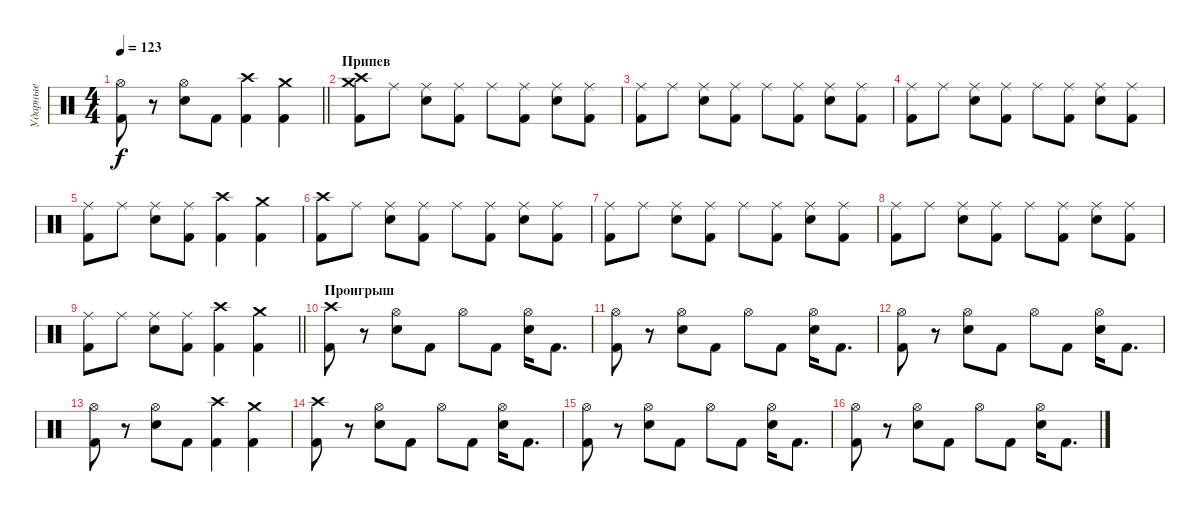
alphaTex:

\track ("Ударные" "Ударные") {instrument percussion}
\staff {score}
\articulation defaults
\ts (4 4)
\tempo 123
\clef neutral
\barLineRight lightlight
\ks c
("Hi-Hat (open)" "Kick (hit) 2").8{dy f} r.8 ("Hi-Hat (open)" "Electric Snare (hit)").8 "Kick (hit) 2".8 ("Kick (hit) 2" "Crash high (hit)").4 ("Kick (hit) 2" "Crash medium (hit)").4 |
\section ("" "Припев")
("Crash high (hit)" "Kick (hit) 2" "Crash medium (hit)").8 "Ride (middle)".8 ("Ride (middle)" "Electric Snare (hit)").8 ("Ride (middle)" "Kick (hit) 2").8 "Ride (middle)".8 ("Ride (middle)" "Kick (hit) 2").8 ("Ride (middle)" "Electric Snare (hit)").8 ("Ride (middle)" "Kick (hit) 2").8 |
("Ride (middle)" "Kick (hit) 2").8 "Ride (middle)".8 ("Ride (middle)" "Electric Snare (hit)").8 ("Ride (middle)" "Kick (hit) 2").8 "Ride (middle)".8 ("Ride (middle)" "Kick (hit) 2").8 ("Ride (middle)" "Electric Snare (hit)").8 ("Ride (middle)" "Kick (hit) 2").8 |
("Ride (middle)" "Kick (hit) 2").8 "Ride (middle)".8 ("Ride (middle)" "Electric Snare (hit)").8 ("Ride (middle)" "Kick (hit) 2").8 "Ride (middle)".8 ("Ride (middle)" "Kick (hit) 2").8 ("Ride (middle)" "Electric Snare (hit)").8 ("Ride (middle)" "Kick (hit) 2").8 |
("Ride (middle)" "Kick (hit) 2").8 "Ride (middle)".8 ("Ride (middle)" "Electric Snare (hit)").8 ("Ride (middle)" "Kick (hit) 2").8 ("Kick (hit) 2" "Crash high (hit)").4 ("Kick (hit) 2" "Crash medium (hit)").4 |
("Crash high (hit)" "Kick (hit) 2").8 "Ride (middle)".8 ("Ride (middle)" "Electric Snare (hit)").8 ("Ride (middle)" "Kick (hit) 2").8 "Ride (middle)".8 ("Ride (middle)" "Kick (hit) 2").8 ("Ride (middle)" "Electric Snare (hit)").8 ("Ride (middle)" "Kick (hit) 2").8 |
("Ride (middle)" "Kick (hit) 2").8 "Ride (middle)".8 ("Ride (middle)" "Electric Snare (hit)").8 ("Ride (middle)" "Kick (hit) 2").8 "Ride (middle)".8 ("Ride (middle)" "Kick (hit) 2").8 ("Ride (middle)" "Electric Snare (hit)").8 ("Ride (middle)" "Kick (hit) 2").8 |
("Ride (middle)" "Kick (hit) 2").8 "Ride (middle)".8 ("Ride (middle)" "Electric Snare (hit)").8 ("Ride (middle)" "Kick (hit) 2").8 "Ride (middle)".8 ("Ride (middle)" "Kick (hit) 2").8 ("Ride (middle)" "Electric Snare (hit)").8 ("Ride (middle)" "Kick (hit) 2").8 |
\barLineRight lightlight
("Ride (middle)" "Kick (hit) 2").8 "Ride (middle)".8 ("Ride (middle)" "Electric Snare (hit)").8 ("Ride (middle)" "Kick (hit) 2").8 ("Kick (hit) 2" "Crash high (hit)").4 ("Kick (hit) 2" "Crash medium (hit)").4 |
\section ("" "Проигрыш")
("Crash high (hit)" "Kick (hit) 2").8 r.8 ("Hi-Hat (open)" "Electric Snare (hit)").8 "Kick (hit) 2".8 "Hi-Hat (open)".8 "Kick (hit) 2".8 ("Hi-Hat (open)" "Electric Snare (hit)").16 "Kick (hit) 2".8{d} |
("Hi-Hat (open)" "Kick (hit) 2").8 r.8 ("Hi-Hat (open)" "Electric Snare (hit)").8 "Kick (hit) 2".8 "Hi-Hat (open)".8 "Kick (hit) 2".8 ("Hi-Hat (open)" "Electric Snare (hit)").16 "Kick (hit) 2".8{d} |
("Hi-Hat (open)" "Kick (hit) 2").8 r.8 ("Hi-Hat (open)" "Electric Snare (hit)").8 "Kick (hit) 2".8 "Hi-Hat (open)".8 "Kick (hit) 2".8 ("Hi-Hat (open)" "Electric Snare (hit)").16 "Kick (hit) 2".8{d} |
("Hi-Hat (open)" "Kick (hit) 2").8 r.8 ("Hi-Hat (open)" "Electric Snare (hit)").8 "Kick (hit) 2".8 ("Kick (hit) 2" "Crash high (hit)").4 ("Kick (hit) 2" "Crash medium (hit)").4 |
("Crash high (hit)" "Kick (hit) 2").8 r.8 ("Hi-Hat (open)" "Electric Snare (hit)").8 "Kick (hit) 2".8 "Hi-Hat (open)".8 "Kick (hit) 2".8 ("Hi-Hat (open)" "Electric Snare (hit)").16 "Kick (hit) 2".8{d} |
("Hi-Hat (open)" "Kick (hit) 2").8 r.8 ("Hi-Hat (open)" "Electric Snare (hit)").8 "Kick (hit) 2".8 "Hi-Hat (open)".8 "Kick (hit) 2".8 ("Hi-Hat (open)" "Electric Snare (hit)").16 "Kick (hit) 2".8{d} |
("Hi-Hat (open)" "Kick (hit) 2").8 r.8 ("Hi-Hat (open)" "Electric Snare (hit)").8 "Kick (hit) 2".8 "Hi-Hat (open)".8 "Kick (hit) 2".8 ("Hi-Hat (open)" "Electric Snare (hit)").16 "Kick (hit) 2".8{d}
